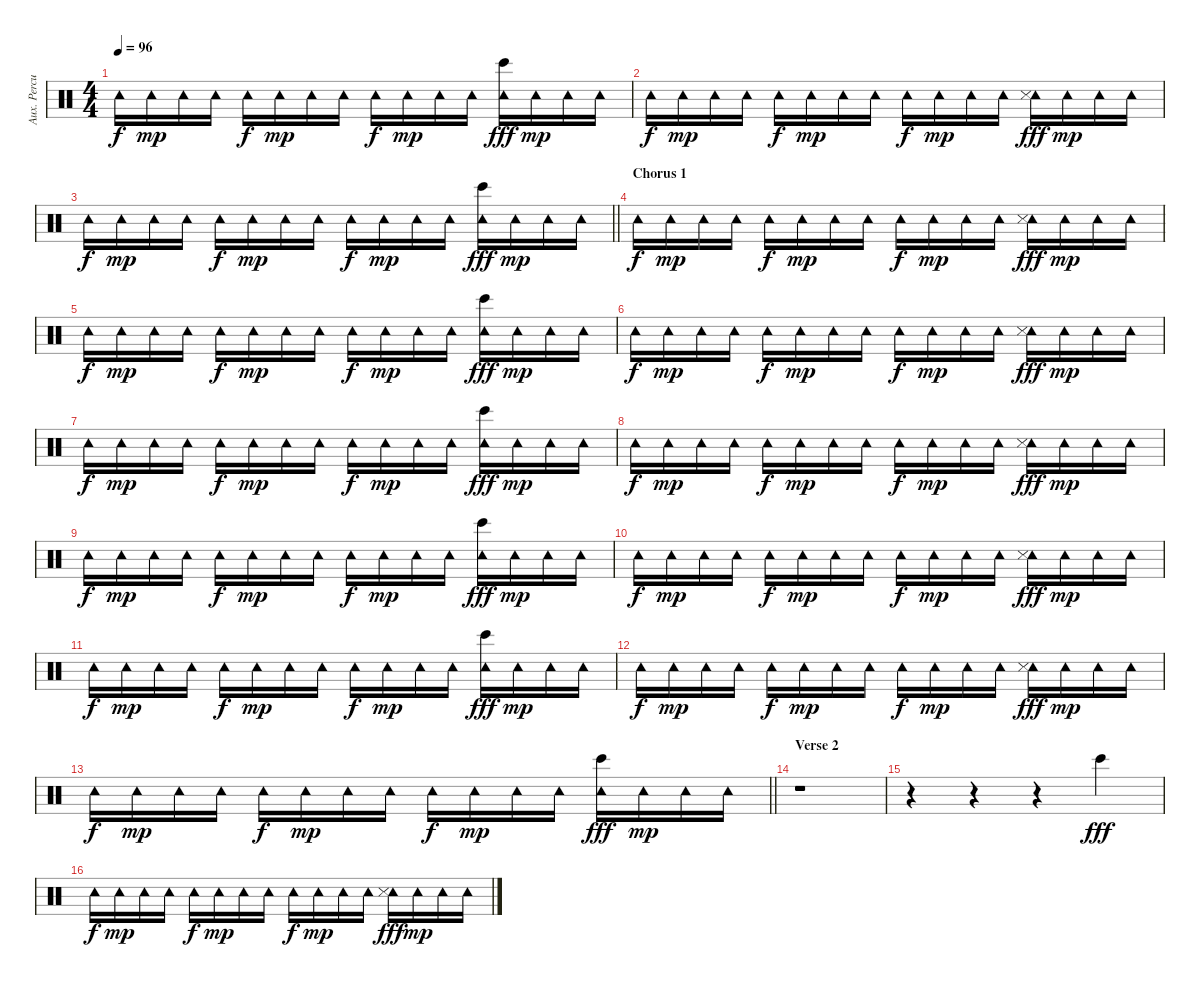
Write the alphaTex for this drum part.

\track ("Aux. Percussion" "Aux. Percu") {instrument percussion}
\staff {score}
\articulation defaults
\ts (4 4)
\tempo 96
\clef neutral
\ks c "Tambourine (hit)".16{dy f} "Tambourine (hit)".16{dy mp} "Tambourine (hit)".16 "Tambourine (hit)".16 "Tambourine (hit)".16{dy f} "Tambourine (hit)".16{dy mp} "Tambourine (hit)".16 "Tambourine (hit)".16 "Tambourine (hit)".16{dy f} "Tambourine (hit)".16{dy mp} "Tambourine (hit)".16 "Tambourine (hit)".16
("Tambourine (hit)" "Bongo High (hit)").16{dy fff} "Tambourine (hit)".16{dy mp} "Tambourine (hit)".16 "Tambourine (hit)".16 |
"Tambourine (hit)".16{dy f} "Tambourine (hit)".16{dy mp} "Tambourine (hit)".16 "Tambourine (hit)".16 "Tambourine (hit)".16{dy f} "Tambourine (hit)".16{dy mp} "Tambourine (hit)".16 "Tambourine (hit)".16 "Tambourine (hit)".16{dy f} "Tambourine (hit)".16{dy mp} "Tambourine (hit)".16 "Tambourine (hit)".16 ("Tambourine (hit)" "Snare (side stick) 3").16{dy fff} "Tambourine (hit)".16{dy mp} "Tambourine (hit)".16 "Tambourine (hit)".16 |
\barLineRight lightlight "Tambourine (hit)".16{dy f} "Tambourine (hit)".16{dy mp} "Tambourine (hit)".16 "Tambourine (hit)".16 "Tambourine (hit)".16{dy f} "Tambourine (hit)".16{dy mp} "Tambourine (hit)".16 "Tambourine (hit)".16 "Tambourine (hit)".16{dy f} "Tambourine (hit)".16{dy mp} "Tambourine (hit)".16 "Tambourine (hit)".16
("Tambourine (hit)" "Bongo High (hit)").16{dy fff} "Tambourine (hit)".16{dy mp} "Tambourine (hit)".16 "Tambourine (hit)".16 |
\section ("" "Chorus 1")
"Tambourine (hit)".16{dy f} "Tambourine (hit)".16{dy mp} "Tambourine (hit)".16 "Tambourine (hit)".16 "Tambourine (hit)".16{dy f} "Tambourine (hit)".16{dy mp} "Tambourine (hit)".16 "Tambourine (hit)".16 "Tambourine (hit)".16{dy f} "Tambourine (hit)".16{dy mp} "Tambourine (hit)".16 "Tambourine (hit)".16 ("Tambourine (hit)" "Snare (side stick) 3").16{dy fff} "Tambourine (hit)".16{dy mp} "Tambourine (hit)".16 "Tambourine (hit)".16 |
"Tambourine (hit)".16{dy f} "Tambourine (hit)".16{dy mp} "Tambourine (hit)".16 "Tambourine (hit)".16 "Tambourine (hit)".16{dy f} "Tambourine (hit)".16{dy mp} "Tambourine (hit)".16 "Tambourine (hit)".16 "Tambourine (hit)".16{dy f} "Tambourine (hit)".16{dy mp} "Tambourine (hit)".16 "Tambourine (hit)".16 ("Tambourine (hit)" "Bongo High (hit)").16{dy fff} "Tambourine (hit)".16{dy mp} "Tambourine (hit)".16 "Tambourine (hit)".16 |
"Tambourine (hit)".16{dy f} "Tambourine (hit)".16{dy mp} "Tambourine (hit)".16 "Tambourine (hit)".16 "Tambourine (hit)".16{dy f} "Tambourine (hit)".16{dy mp} "Tambourine (hit)".16 "Tambourine (hit)".16 "Tambourine (hit)".16{dy f} "Tambourine (hit)".16{dy mp} "Tambourine (hit)".16 "Tambourine (hit)".16 ("Tambourine (hit)" "Snare (side stick) 3").16{dy fff} "Tambourine (hit)".16{dy mp} "Tambourine (hit)".16 "Tambourine (hit)".16 |
"Tambourine (hit)".16{dy f} "Tambourine (hit)".16{dy mp} "Tambourine (hit)".16 "Tambourine (hit)".16 "Tambourine (hit)".16{dy f} "Tambourine (hit)".16{dy mp} "Tambourine (hit)".16 "Tambourine (hit)".16 "Tambourine (hit)".16{dy f} "Tambourine (hit)".16{dy mp} "Tambourine (hit)".16 "Tambourine (hit)".16 ("Tambourine (hit)" "Bongo High (hit)").16{dy fff} "Tambourine (hit)".16{dy mp} "Tambourine (hit)".16 "Tambourine (hit)".16 |
"Tambourine (hit)".16{dy f} "Tambourine (hit)".16{dy mp} "Tambourine (hit)".16 "Tambourine (hit)".16 "Tambourine (hit)".16{dy f} "Tambourine (hit)".16{dy mp} "Tambourine (hit)".16 "Tambourine (hit)".16 "Tambourine (hit)".16{dy f} "Tambourine (hit)".16{dy mp} "Tambourine (hit)".16 "Tambourine (hit)".16 ("Tambourine (hit)" "Snare (side stick) 3").16{dy fff} "Tambourine (hit)".16{dy mp} "Tambourine (hit)".16 "Tambourine (hit)".16 |
"Tambourine (hit)".16{dy f} "Tambourine (hit)".16{dy mp} "Tambourine (hit)".16 "Tambourine (hit)".16 "Tambourine (hit)".16{dy f} "Tambourine (hit)".16{dy mp} "Tambourine (hit)".16 "Tambourine (hit)".16 "Tambourine (hit)".16{dy f} "Tambourine (hit)".16{dy mp} "Tambourine (hit)".16 "Tambourine (hit)".16 ("Tambourine (hit)" "Bongo High (hit)").16{dy fff} "Tambourine (hit)".16{dy mp} "Tambourine (hit)".16 "Tambourine (hit)".16 |
"Tambourine (hit)".16{dy f} "Tambourine (hit)".16{dy mp} "Tambourine (hit)".16 "Tambourine (hit)".16 "Tambourine (hit)".16{dy f} "Tambourine (hit)".16{dy mp} "Tambourine (hit)".16 "Tambourine (hit)".16 "Tambourine (hit)".16{dy f} "Tambourine (hit)".16{dy mp} "Tambourine (hit)".16 "Tambourine (hit)".16 ("Tambourine (hit)" "Snare (side stick) 3").16{dy fff} "Tambourine (hit)".16{dy mp} "Tambourine (hit)".16 "Tambourine (hit)".16 |
"Tambourine (hit)".16{dy f} "Tambourine (hit)".16{dy mp} "Tambourine (hit)".16 "Tambourine (hit)".16 "Tambourine (hit)".16{dy f} "Tambourine (hit)".16{dy mp} "Tambourine (hit)".16 "Tambourine (hit)".16 "Tambourine (hit)".16{dy f} "Tambourine (hit)".16{dy mp} "Tambourine (hit)".16 "Tambourine (hit)".16 ("Tambourine (hit)" "Bongo High (hit)").16{dy fff} "Tambourine (hit)".16{dy mp} "Tambourine (hit)".16 "Tambourine (hit)".16 |
"Tambourine (hit)".16{dy f} "Tambourine (hit)".16{dy mp} "Tambourine (hit)".16 "Tambourine (hit)".16 "Tambourine (hit)".16{dy f} "Tambourine (hit)".16{dy mp} "Tambourine (hit)".16 "Tambourine (hit)".16 "Tambourine (hit)".16{dy f} "Tambourine (hit)".16{dy mp} "Tambourine (hit)".16 "Tambourine (hit)".16 ("Tambourine (hit)" "Snare (side stick) 3").16{dy fff} "Tambourine (hit)".16{dy mp} "Tambourine (hit)".16 "Tambourine (hit)".16 |
\barLineRight lightlight "Tambourine (hit)".16{dy f} "Tambourine (hit)".16{dy mp} "Tambourine (hit)".16 "Tambourine (hit)".16 "Tambourine (hit)".16{dy f} "Tambourine (hit)".16{dy mp} "Tambourine (hit)".16 "Tambourine (hit)".16 "Tambourine (hit)".16{dy f} "Tambourine (hit)".16{dy mp} "Tambourine (hit)".16 "Tambourine (hit)".16
("Tambourine (hit)" "Bongo High (hit)").16{dy fff} "Tambourine (hit)".16{dy mp} "Tambourine (hit)".16 "Tambourine (hit)".16 |
\section ("" "Verse 2")
r.1 |
r.4 r.4 r.4 "Bongo High (hit)".4{dy fff} |
"Tambourine (hit)".16{dy f} "Tambourine (hit)".16{dy mp} "Tambourine (hit)".16 "Tambourine (hit)".16 "Tambourine (hit)".16{dy f} "Tambourine (hit)".16{dy mp} "Tambourine (hit)".16 "Tambourine (hit)".16 "Tambourine (hit)".16{dy f} "Tambourine (hit)".16{dy mp} "Tambourine (hit)".16 "Tambourine (hit)".16 ("Tambourine (hit)" "Snare (side stick) 3").16{dy fff} "Tambourine (hit)".16{dy mp} "Tambourine (hit)".16 "Tambourine (hit)".16
